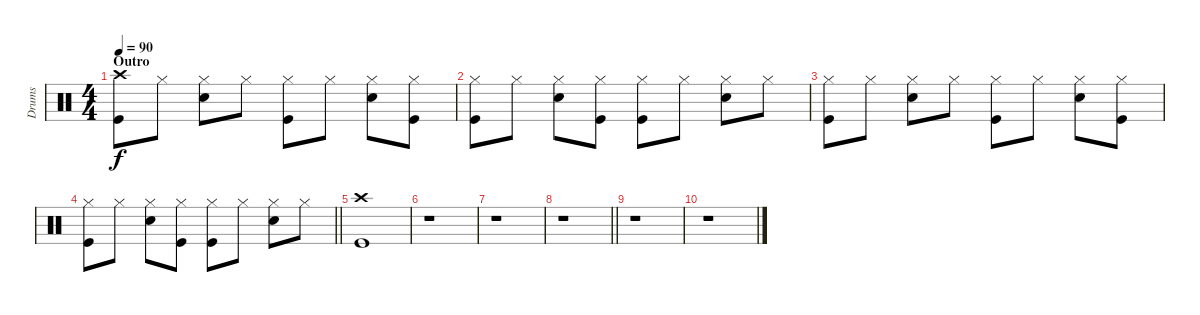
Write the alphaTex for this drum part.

\track ("Drums" "Drums") {instrument percussion}
\staff {score}
\articulation defaults
\ts (4 4)
\section ("" "Outro")
\tempo 90
\clef neutral
\ks c
("Crash high (hit)" "Kick (hit)").8{dy f} "Hi-Hat (closed)".8 ("Hi-Hat (closed)" "Snare (hit) 2").8 "Hi-Hat (closed)".8 ("Hi-Hat (closed)" "Kick (hit)").8 "Hi-Hat (closed)".8 ("Hi-Hat (closed)" "Snare (hit) 2").8 ("Hi-Hat (closed)" "Kick (hit)").8 |
("Hi-Hat (closed)" "Kick (hit)").8 "Hi-Hat (closed)".8 ("Hi-Hat (closed)" "Snare (hit) 2").8 ("Hi-Hat (closed)" "Kick (hit)").8 ("Hi-Hat (closed)" "Kick (hit)").8 "Hi-Hat (closed)".8 ("Hi-Hat (closed)" "Snare (hit) 2").8 "Hi-Hat (closed)".8 |
("Hi-Hat (closed)" "Kick (hit)").8 "Hi-Hat (closed)".8 ("Hi-Hat (closed)" "Snare (hit) 2").8 "Hi-Hat (closed)".8 ("Hi-Hat (closed)" "Kick (hit)").8 "Hi-Hat (closed)".8 ("Hi-Hat (closed)" "Snare (hit) 2").8 ("Hi-Hat (closed)" "Kick (hit)").8 |
\barLineRight lightlight
("Hi-Hat (closed)" "Kick (hit)").8 "Hi-Hat (closed)".8 ("Hi-Hat (closed)" "Snare (hit) 2").8 ("Hi-Hat (closed)" "Kick (hit)").8 ("Hi-Hat (closed)" "Kick (hit)").8 "Hi-Hat (closed)".8 ("Hi-Hat (closed)" "Snare (hit) 2").8 "Hi-Hat (closed)".8 |
("Crash high (hit)" "Kick (hit)").1 |
r.1 |
r.1 |
\barLineRight lightlight
r.1 |
r.1 |
r.1
